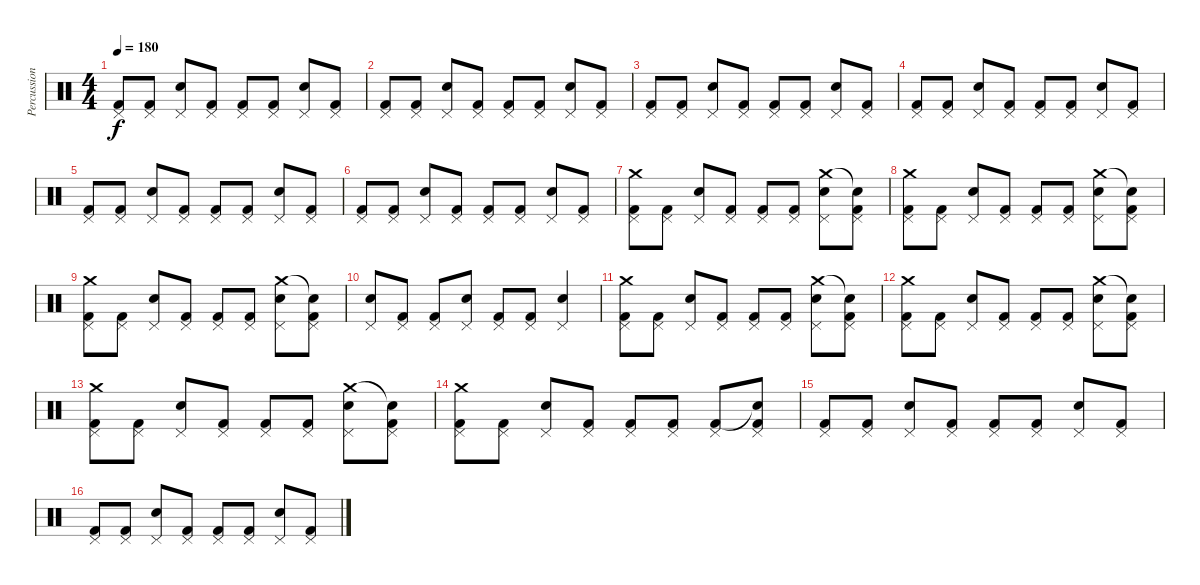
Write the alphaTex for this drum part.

\track ("Percussion" "Percussion") {instrument percussion}
\staff {score}
\articulation defaults
\ts (4 4)
\tempo 180
\clef neutral
\ks c
("Pedal Hi-Hat (hit)" "Kick (hit) 2").8{dy f} ("Pedal Hi-Hat (hit)" "Kick (hit) 2").8 ("Pedal Hi-Hat (hit)" "Snare (hit) 2").8 ("Pedal Hi-Hat (hit)" "Kick (hit) 2").8 ("Pedal Hi-Hat (hit)" "Kick (hit) 2").8 ("Pedal Hi-Hat (hit)" "Kick (hit) 2").8 ("Pedal Hi-Hat (hit)" "Snare (hit) 2").8 ("Pedal Hi-Hat (hit)" "Kick (hit) 2").8 |
("Pedal Hi-Hat (hit)" "Kick (hit) 2").8 ("Pedal Hi-Hat (hit)" "Kick (hit) 2").8 ("Pedal Hi-Hat (hit)" "Snare (hit) 2").8 ("Pedal Hi-Hat (hit)" "Kick (hit) 2").8 ("Pedal Hi-Hat (hit)" "Kick (hit) 2").8 ("Pedal Hi-Hat (hit)" "Kick (hit) 2").8 ("Pedal Hi-Hat (hit)" "Snare (hit) 2").8 ("Pedal Hi-Hat (hit)" "Kick (hit) 2").8 |
("Pedal Hi-Hat (hit)" "Kick (hit) 2").8 ("Pedal Hi-Hat (hit)" "Kick (hit) 2").8 ("Pedal Hi-Hat (hit)" "Snare (hit) 2").8 ("Pedal Hi-Hat (hit)" "Kick (hit) 2").8 ("Pedal Hi-Hat (hit)" "Kick (hit) 2").8 ("Pedal Hi-Hat (hit)" "Kick (hit) 2").8 ("Pedal Hi-Hat (hit)" "Snare (hit) 2").8 ("Pedal Hi-Hat (hit)" "Kick (hit) 2").8 |
("Pedal Hi-Hat (hit)" "Kick (hit) 2").8 ("Pedal Hi-Hat (hit)" "Kick (hit) 2").8 ("Pedal Hi-Hat (hit)" "Snare (hit) 2").8 ("Pedal Hi-Hat (hit)" "Kick (hit) 2").8 ("Pedal Hi-Hat (hit)" "Kick (hit) 2").8 ("Pedal Hi-Hat (hit)" "Kick (hit) 2").8 ("Pedal Hi-Hat (hit)" "Snare (hit) 2").8 ("Pedal Hi-Hat (hit)" "Kick (hit) 2").8 |
("Pedal Hi-Hat (hit)" "Kick (hit) 2").8 ("Pedal Hi-Hat (hit)" "Kick (hit) 2").8 ("Pedal Hi-Hat (hit)" "Snare (hit) 2").8 ("Pedal Hi-Hat (hit)" "Kick (hit) 2").8 ("Pedal Hi-Hat (hit)" "Kick (hit) 2").8 ("Pedal Hi-Hat (hit)" "Kick (hit) 2").8 ("Pedal Hi-Hat (hit)" "Snare (hit) 2").8 ("Pedal Hi-Hat (hit)" "Kick (hit) 2").8 |
("Pedal Hi-Hat (hit)" "Kick (hit) 2").8 ("Pedal Hi-Hat (hit)" "Kick (hit) 2").8 ("Pedal Hi-Hat (hit)" "Snare (hit) 2").8 ("Pedal Hi-Hat (hit)" "Kick (hit) 2").8 ("Pedal Hi-Hat (hit)" "Kick (hit) 2").8 ("Pedal Hi-Hat (hit)" "Kick (hit) 2").8 ("Pedal Hi-Hat (hit)" "Snare (hit) 2").8 ("Pedal Hi-Hat (hit)" "Kick (hit) 2").8 |
("Pedal Hi-Hat (hit)" "Crash medium (hit)" "Kick (hit) 2").8 ("Pedal Hi-Hat (hit)" "Kick (hit) 2").8 ("Pedal Hi-Hat (hit)" "Snare (hit) 2").8 ("Pedal Hi-Hat (hit)" "Kick (hit) 2").8 ("Pedal Hi-Hat (hit)" "Kick (hit) 2").8 ("Pedal Hi-Hat (hit)" "Kick (hit) 2").8 ("Pedal Hi-Hat (hit)" "Crash medium (hit)" "Snare (hit) 2").8 ("Pedal Hi-Hat (hit)" "Snare (hit)"{t} "Kick (hit) 2").8 |
("Pedal Hi-Hat (hit)" "Crash medium (hit)" "Kick (hit) 2").8 ("Pedal Hi-Hat (hit)" "Kick (hit) 2").8 ("Pedal Hi-Hat (hit)" "Snare (hit) 2").8 ("Pedal Hi-Hat (hit)" "Kick (hit) 2").8 ("Pedal Hi-Hat (hit)" "Kick (hit) 2").8 ("Pedal Hi-Hat (hit)" "Kick (hit) 2").8 ("Pedal Hi-Hat (hit)" "Crash medium (hit)" "Snare (hit) 2").8 ("Pedal Hi-Hat (hit)" "Snare (hit)"{t} "Kick (hit) 2").8 |
("Pedal Hi-Hat (hit)" "Crash medium (hit)" "Kick (hit) 2").8 ("Pedal Hi-Hat (hit)" "Kick (hit) 2").8 ("Pedal Hi-Hat (hit)" "Snare (hit) 2").8 ("Pedal Hi-Hat (hit)" "Kick (hit) 2").8 ("Pedal Hi-Hat (hit)" "Kick (hit) 2").8 ("Pedal Hi-Hat (hit)" "Kick (hit) 2").8 ("Pedal Hi-Hat (hit)" "Crash medium (hit)" "Snare (hit) 2").8 ("Pedal Hi-Hat (hit)" "Snare (hit)"{t} "Kick (hit) 2").8 |
("Pedal Hi-Hat (hit)" "Snare (hit) 2").8 ("Pedal Hi-Hat (hit)" "Kick (hit) 2").8 ("Pedal Hi-Hat (hit)" "Kick (hit) 2").8 ("Pedal Hi-Hat (hit)" "Snare (hit) 2").8 ("Pedal Hi-Hat (hit)" "Kick (hit) 2").8 ("Pedal Hi-Hat (hit)" "Kick (hit) 2").8 ("Pedal Hi-Hat (hit)" "Snare (hit) 2").4 |
("Pedal Hi-Hat (hit)" "Crash medium (hit)" "Kick (hit) 2").8 ("Pedal Hi-Hat (hit)" "Kick (hit) 2").8 ("Pedal Hi-Hat (hit)" "Snare (hit) 2").8 ("Pedal Hi-Hat (hit)" "Kick (hit) 2").8 ("Pedal Hi-Hat (hit)" "Kick (hit) 2").8 ("Pedal Hi-Hat (hit)" "Kick (hit) 2").8 ("Pedal Hi-Hat (hit)" "Crash medium (hit)" "Snare (hit) 2").8 ("Pedal Hi-Hat (hit)" "Snare (hit)"{t} "Kick (hit) 2").8 |
("Pedal Hi-Hat (hit)" "Crash medium (hit)" "Kick (hit) 2").8 ("Pedal Hi-Hat (hit)" "Kick (hit) 2").8 ("Pedal Hi-Hat (hit)" "Snare (hit) 2").8 ("Pedal Hi-Hat (hit)" "Kick (hit) 2").8 ("Pedal Hi-Hat (hit)" "Kick (hit) 2").8 ("Pedal Hi-Hat (hit)" "Kick (hit) 2").8 ("Pedal Hi-Hat (hit)" "Crash medium (hit)" "Snare (hit) 2").8 ("Pedal Hi-Hat (hit)" "Snare (hit)"{t} "Kick (hit) 2").8 |
("Pedal Hi-Hat (hit)" "Crash medium (hit)" "Kick (hit) 2").8 ("Pedal Hi-Hat (hit)" "Kick (hit) 2").8 ("Pedal Hi-Hat (hit)" "Snare (hit) 2").8 ("Pedal Hi-Hat (hit)" "Kick (hit) 2").8 ("Pedal Hi-Hat (hit)" "Kick (hit) 2").8 ("Pedal Hi-Hat (hit)" "Kick (hit) 2").8 ("Pedal Hi-Hat (hit)" "Crash medium (hit)" "Snare (hit) 2").8 ("Pedal Hi-Hat (hit)" "Snare (hit)"{t} "Kick (hit) 2").8 |
("Pedal Hi-Hat (hit)" "Crash medium (hit)" "Kick (hit) 2").8 ("Pedal Hi-Hat (hit)" "Kick (hit) 2").8 ("Pedal Hi-Hat (hit)" "Snare (hit) 2").8 ("Pedal Hi-Hat (hit)" "Kick (hit) 2").8 ("Pedal Hi-Hat (hit)" "Kick (hit) 2").8 ("Pedal Hi-Hat (hit)" "Kick (hit) 2").8 ("Pedal Hi-Hat (hit)" "Kick (hit) 2").8 ("Pedal Hi-Hat (hit)" "Snare (hit)"{t} "Kick (hit) 2").8 |
("Pedal Hi-Hat (hit)" "Kick (hit) 2").8 ("Pedal Hi-Hat (hit)" "Kick (hit) 2").8 ("Pedal Hi-Hat (hit)" "Snare (hit) 2").8 ("Pedal Hi-Hat (hit)" "Kick (hit) 2").8 ("Pedal Hi-Hat (hit)" "Kick (hit) 2").8 ("Pedal Hi-Hat (hit)" "Kick (hit) 2").8 ("Pedal Hi-Hat (hit)" "Snare (hit) 2").8 ("Pedal Hi-Hat (hit)" "Kick (hit) 2").8 |
("Pedal Hi-Hat (hit)" "Kick (hit) 2").8 ("Pedal Hi-Hat (hit)" "Kick (hit) 2").8 ("Pedal Hi-Hat (hit)" "Snare (hit) 2").8 ("Pedal Hi-Hat (hit)" "Kick (hit) 2").8 ("Pedal Hi-Hat (hit)" "Kick (hit) 2").8 ("Pedal Hi-Hat (hit)" "Kick (hit) 2").8 ("Pedal Hi-Hat (hit)" "Snare (hit) 2").8 ("Pedal Hi-Hat (hit)" "Kick (hit) 2").8
